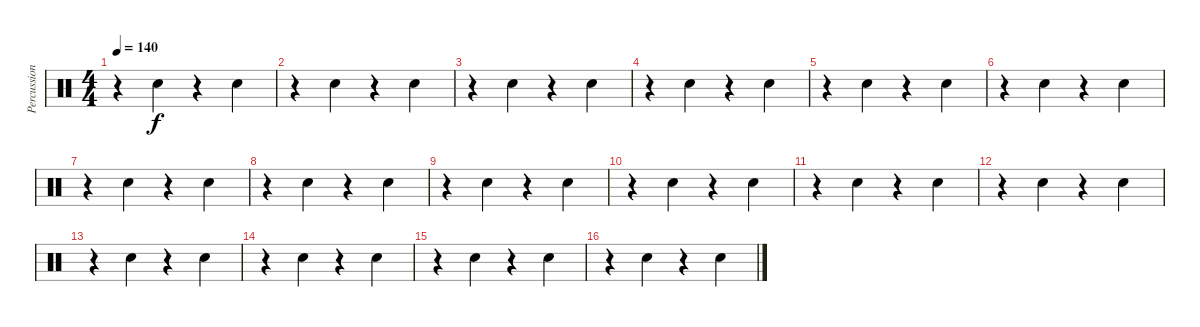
\track ("Percussions" "Percussion") {instrument percussion}
\staff {score}
\articulation defaults
\ts (4 4)
\tempo 140
\clef neutral
\ks c
r.4{dy f} "Hand Clap (hit)".4 r.4 "Hand Clap (hit)".4 |
r.4 "Hand Clap (hit)".4 r.4 "Hand Clap (hit)".4 |
r.4 "Hand Clap (hit)".4 r.4 "Hand Clap (hit)".4 |
r.4 "Hand Clap (hit)".4 r.4 "Hand Clap (hit)".4 |
r.4 "Hand Clap (hit)".4 r.4 "Hand Clap (hit)".4 |
r.4 "Hand Clap (hit)".4 r.4 "Hand Clap (hit)".4 |
r.4 "Hand Clap (hit)".4 r.4 "Hand Clap (hit)".4 |
r.4 "Hand Clap (hit)".4 r.4 "Hand Clap (hit)".4 |
r.4 "Hand Clap (hit)".4 r.4 "Hand Clap (hit)".4 |
r.4 "Hand Clap (hit)".4 r.4 "Hand Clap (hit)".4 |
r.4 "Hand Clap (hit)".4 r.4 "Hand Clap (hit)".4 |
r.4 "Hand Clap (hit)".4 r.4 "Hand Clap (hit)".4 |
r.4 "Hand Clap (hit)".4 r.4 "Hand Clap (hit)".4 |
r.4 "Hand Clap (hit)".4 r.4 "Hand Clap (hit)".4 |
r.4 "Hand Clap (hit)".4 r.4 "Hand Clap (hit)".4 |
r.4 "Hand Clap (hit)".4 r.4 "Hand Clap (hit)".4
